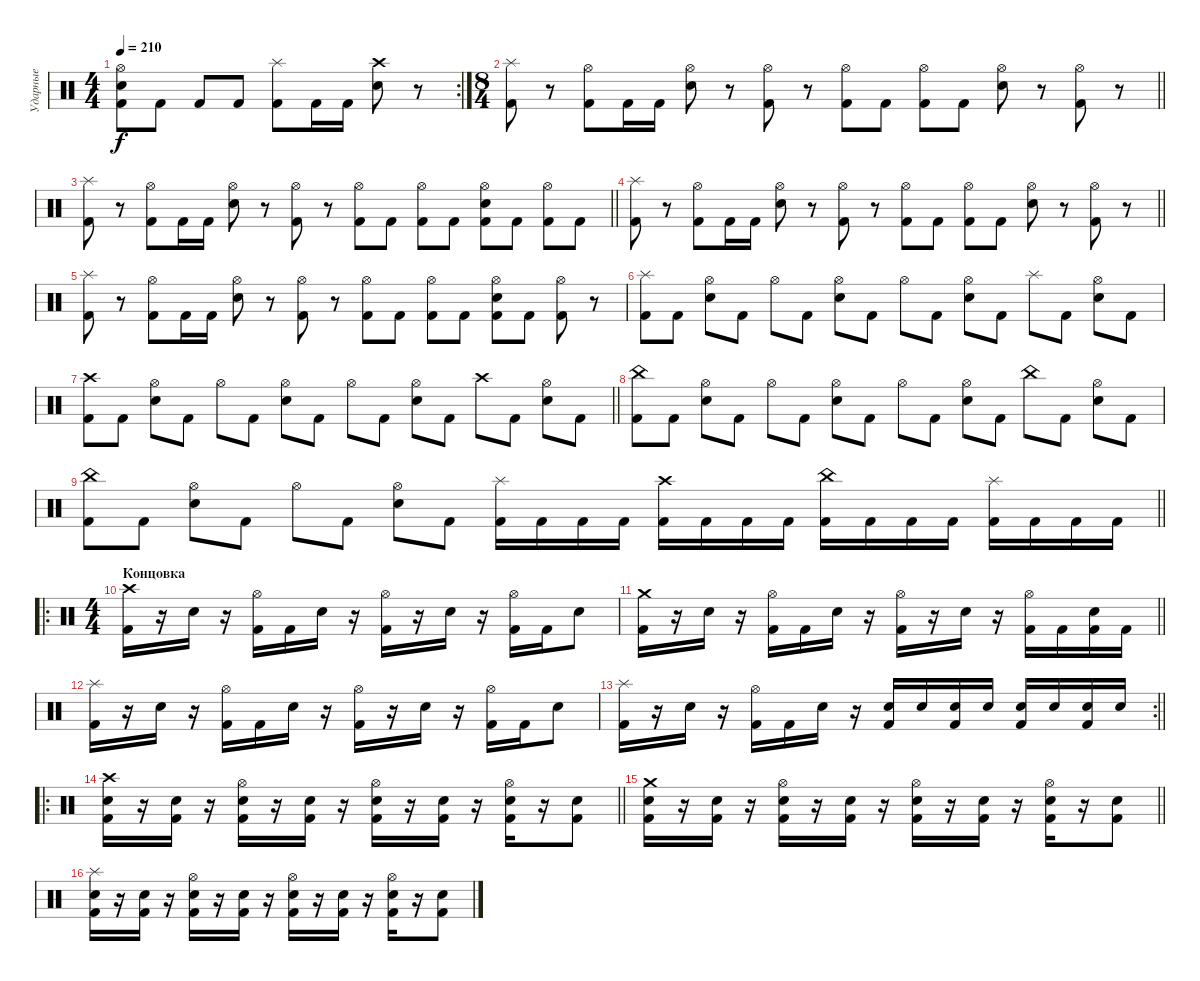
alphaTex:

\track ("Ударные" "Ударные") {mute instrument percussion}
\staff {score}
\articulation defaults
\rc 2
\ts (4 4)
\tempo 210
\clef neutral
\ks c
("Hi-Hat (open)" "Electric Snare (hit)" "Kick (hit) 2").8{dy f} "Kick (hit) 2".8 "Kick (hit) 2".8 "Kick (hit) 2".8 ("Splash (hit)" "Kick (hit) 2").8 "Kick (hit) 2".16 "Kick (hit) 2".16 ("Electric Snare (hit)" "Crash high (hit)").8 r.8 |
\ts (8 4)
\barLineRight lightlight
("Kick (hit) 2" "Splash (hit)").8 r.8 ("Kick (hit) 2" "Hi-Hat (open)").8 "Kick (hit) 2".16 "Kick (hit) 2".16 ("Electric Snare (hit)" "Hi-Hat (open)").8 r.8 ("Kick (hit) 2" "Hi-Hat (open)").8 r.8 ("Kick (hit) 2" "Hi-Hat (open)").8 "Kick (hit) 2".8 ("Kick (hit) 2" "Hi-Hat (open)").8 "Kick (hit) 2".8 ("Electric Snare (hit)" "Hi-Hat (open)").8 r.8 ("Kick (hit) 2" "Hi-Hat (open)").8 r.8 |
\barLineRight lightlight
("Kick (hit) 2" "Splash (hit)").8 r.8 ("Kick (hit) 2" "Hi-Hat (open)").8 "Kick (hit) 2".16 "Kick (hit) 2".16 ("Electric Snare (hit)" "Hi-Hat (open)").8 r.8 ("Kick (hit) 2" "Hi-Hat (open)").8 r.8 ("Kick (hit) 2" "Hi-Hat (open)").8 "Kick (hit) 2".8 ("Kick (hit) 2" "Hi-Hat (open)").8 "Kick (hit) 2".8 ("Kick (hit) 2" "Electric Snare (hit)" "Hi-Hat (open)").8 "Kick (hit) 2".8 ("Kick (hit) 2" "Hi-Hat (open)").8 "Kick (hit) 2".8 |
\barLineRight lightlight
("Kick (hit) 2" "Splash (hit)").8 r.8 ("Kick (hit) 2" "Hi-Hat (open)").8 "Kick (hit) 2".16 "Kick (hit) 2".16 ("Electric Snare (hit)" "Hi-Hat (open)").8 r.8 ("Kick (hit) 2" "Hi-Hat (open)").8 r.8 ("Kick (hit) 2" "Hi-Hat (open)").8 "Kick (hit) 2".8 ("Kick (hit) 2" "Hi-Hat (open)").8 "Kick (hit) 2".8 ("Electric Snare (hit)" "Hi-Hat (open)").8 r.8 ("Kick (hit) 2" "Hi-Hat (open)").8 r.8 |
("Kick (hit) 2" "Splash (hit)").8 r.8 ("Kick (hit) 2" "Hi-Hat (open)").8 "Kick (hit) 2".16 "Kick (hit) 2".16 ("Electric Snare (hit)" "Hi-Hat (open)").8 r.8 ("Kick (hit) 2" "Hi-Hat (open)").8 r.8 ("Kick (hit) 2" "Hi-Hat (open)").8 "Kick (hit) 2".8 ("Kick (hit) 2" "Hi-Hat (open)").8 "Kick (hit) 2".8 ("Kick (hit) 2" "Electric Snare (hit)" "Hi-Hat (open)").8 "Kick (hit) 2".8 ("Kick (hit) 2" "Hi-Hat (open)").8 r.8 |
("Kick (hit) 2" "Splash (hit)").8 "Kick (hit) 2".8 ("Electric Snare (hit)" "Hi-Hat (open)").8 "Kick (hit) 2".8 "Hi-Hat (open)".8 "Kick (hit) 2".8 ("Electric Snare (hit)" "Hi-Hat (open)").8 "Kick (hit) 2".8 "Hi-Hat (open)".8 "Kick (hit) 2".8 ("Electric Snare (hit)" "Hi-Hat (open)").8 "Kick (hit) 2".8 "Splash (hit)".8 "Kick (hit) 2".8 ("Electric Snare (hit)" "Hi-Hat (open)").8 "Kick (hit) 2".8 |
\barLineRight lightlight
("Kick (hit) 2" "Crash high (hit)").8 "Kick (hit) 2".8 ("Electric Snare (hit)" "Hi-Hat (open)").8 "Kick (hit) 2".8 "Hi-Hat (open)".8 "Kick (hit) 2".8 ("Electric Snare (hit)" "Hi-Hat (open)").8 "Kick (hit) 2".8 "Hi-Hat (open)".8 "Kick (hit) 2".8 ("Electric Snare (hit)" "Hi-Hat (open)").8 "Kick (hit) 2".8 "Crash high (hit)".8 "Kick (hit) 2".8 ("Electric Snare (hit)" "Hi-Hat (open)").8 "Kick (hit) 2".8 |
("Kick (hit) 2" "China (hit)").8 "Kick (hit) 2".8 ("Electric Snare (hit)" "Hi-Hat (open)").8 "Kick (hit) 2".8 "Hi-Hat (open)".8 "Kick (hit) 2".8 ("Electric Snare (hit)" "Hi-Hat (open)").8 "Kick (hit) 2".8 "Hi-Hat (open)".8 "Kick (hit) 2".8 ("Electric Snare (hit)" "Hi-Hat (open)").8 "Kick (hit) 2".8 "China (hit)".8 "Kick (hit) 2".8 ("Electric Snare (hit)" "Hi-Hat (open)").8 "Kick (hit) 2".8 |
\barLineRight lightlight
("Kick (hit) 2" "China (hit)").8 "Kick (hit) 2".8 ("Electric Snare (hit)" "Hi-Hat (open)").8 "Kick (hit) 2".8 "Hi-Hat (open)".8 "Kick (hit) 2".8 ("Electric Snare (hit)" "Hi-Hat (open)").8 "Kick (hit) 2".8 ("Kick (hit) 2" "Splash (hit)").16 "Kick (hit) 2".16 "Kick (hit) 2".16 "Kick (hit) 2".16 ("Kick (hit) 2" "Crash high (hit)").16 "Kick (hit) 2".16 "Kick (hit) 2".16 "Kick (hit) 2".16 ("Kick (hit) 2" "China (hit)").16 "Kick (hit) 2".16 "Kick (hit) 2".16 "Kick (hit) 2".16 ("Kick (hit) 2" "Splash (hit)").16 "Kick (hit) 2".16 "Kick (hit) 2".16 "Kick (hit) 2".16 |
\ro
\ts (4 4)
\section ("" "Концовка")
("Crash high (hit)" "Kick (hit) 2").16 r.16 "Electric Snare (hit)".16 r.16 ("Hi-Hat (open)" "Kick (hit) 2").16 "Kick (hit) 2".16 "Electric Snare (hit)".16 r.16 ("Hi-Hat (open)" "Kick (hit) 2").16 r.16 "Electric Snare (hit)".16 r.16 ("Hi-Hat (open)" "Kick (hit) 2").16 "Kick (hit) 2".16 "Electric Snare (hit)".8 |
\barLineRight lightlight
("Crash medium (hit)" "Kick (hit) 2").16 r.16 "Electric Snare (hit)".16 r.16 ("Hi-Hat (open)" "Kick (hit) 2").16 "Kick (hit) 2".16 "Electric Snare (hit)".16 r.16 ("Hi-Hat (open)" "Kick (hit) 2").16 r.16 "Electric Snare (hit)".16 r.16 ("Hi-Hat (open)" "Kick (hit) 2").16 "Kick (hit) 2".16 ("Electric Snare (hit)" "Kick (hit) 2").16 "Kick (hit) 2".16 |
("Splash (hit)" "Kick (hit) 2").16 r.16 "Electric Snare (hit)".16 r.16 ("Hi-Hat (open)" "Kick (hit) 2").16 "Kick (hit) 2".16 "Electric Snare (hit)".16 r.16 ("Hi-Hat (open)" "Kick (hit) 2").16 r.16 "Electric Snare (hit)".16 r.16 ("Hi-Hat (open)" "Kick (hit) 2").16 "Kick (hit) 2".16 "Electric Snare (hit)".8 |
\rc 2
\barLineRight lightlight
("Splash (hit)" "Kick (hit) 2").16 r.16 "Electric Snare (hit)".16 r.16 ("Hi-Hat (open)" "Kick (hit) 2").16 "Kick (hit) 2".16 "Electric Snare (hit)".16 r.16 ("Electric Snare (hit)" "Kick (hit) 2").16 "Electric Snare (hit)".16 ("Electric Snare (hit)" "Kick (hit) 2").16 "Electric Snare (hit)".16 ("Electric Snare (hit)" "Kick (hit) 2").16 "Electric Snare (hit)".16 ("Electric Snare (hit)" "Kick (hit) 2").16 "Electric Snare (hit)".16 |
\ro
\barLineRight lightlight
("Crash high (hit)" "Electric Snare (hit)" "Kick (hit) 2").16 r.16 ("Electric Snare (hit)" "Kick (hit) 2").16 r.16 ("Hi-Hat (open)" "Electric Snare (hit)" "Kick (hit) 2").16 r.16 ("Electric Snare (hit)" "Kick (hit) 2").16 r.16 ("Hi-Hat (open)" "Electric Snare (hit)" "Kick (hit) 2").16 r.16 ("Electric Snare (hit)" "Kick (hit) 2").16 r.16 ("Hi-Hat (open)" "Electric Snare (hit)" "Kick (hit) 2").16 r.16 ("Electric Snare (hit)" "Kick (hit) 2").8 |
\barLineRight lightlight
("Crash medium (hit)" "Electric Snare (hit)" "Kick (hit) 2").16 r.16 ("Electric Snare (hit)" "Kick (hit) 2").16 r.16 ("Hi-Hat (open)" "Electric Snare (hit)" "Kick (hit) 2").16 r.16 ("Electric Snare (hit)" "Kick (hit) 2").16 r.16 ("Hi-Hat (open)" "Electric Snare (hit)" "Kick (hit) 2").16 r.16 ("Electric Snare (hit)" "Kick (hit) 2").16 r.16 ("Hi-Hat (open)" "Electric Snare (hit)" "Kick (hit) 2").16 r.16 ("Electric Snare (hit)" "Kick (hit) 2").8 |
("Splash (hit)" "Electric Snare (hit)" "Kick (hit) 2").16 r.16 ("Electric Snare (hit)" "Kick (hit) 2").16 r.16 ("Hi-Hat (open)" "Electric Snare (hit)" "Kick (hit) 2").16 r.16 ("Electric Snare (hit)" "Kick (hit) 2").16 r.16 ("Hi-Hat (open)" "Electric Snare (hit)" "Kick (hit) 2").16 r.16 ("Electric Snare (hit)" "Kick (hit) 2").16 r.16 ("Hi-Hat (open)" "Electric Snare (hit)" "Kick (hit) 2").16 r.16 ("Electric Snare (hit)" "Kick (hit) 2").8
